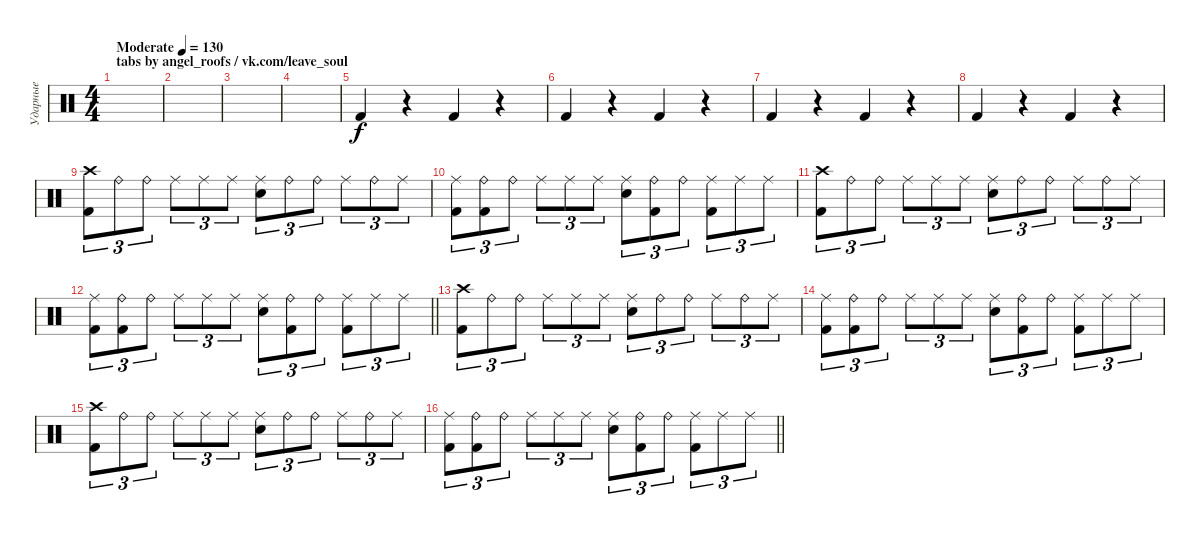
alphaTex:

\track ("Ударные" "Ударные") {instrument percussion}
\staff {score}
\articulation defaults
\ts (4 4)
\section ("" "tabs by angel_roofs / vk.com/leave_soul")
\tempo (130 "Moderate")
\clef neutral
\ks c
|
|
|
|
"Kick (hit) 2".4 r.4 "Kick (hit) 2".4 r.4 |
"Kick (hit) 2".4 r.4 "Kick (hit) 2".4 r.4 |
"Kick (hit) 2".4 r.4 "Kick (hit) 2".4 r.4 |
"Kick (hit) 2".4 r.4 "Kick (hit) 2".4 r.4 |
("Crash high (hit)" "Kick (hit) 2").8{tu (3 2)} "Ride (bell)".8{tu (3 2)} "Ride (bell)".8{tu (3 2)} "Ride (middle)".8{tu (3 2)} "Ride (middle)".8{tu (3 2)} "Ride (middle)".8{tu (3 2)} ("Ride (middle)" "Electric Snare (hit)").8{tu (3 2)} "Ride (bell)".8{tu (3 2)} "Ride (bell)".8{tu (3 2)} "Ride (middle)".8{tu (3 2)} "Ride (bell)".8{tu (3 2)} "Ride (middle)".8{tu (3 2)} |
("Ride (middle)" "Kick (hit) 2").8{tu (3 2)} ("Ride (bell)" "Kick (hit) 2").8{tu (3 2)} "Ride (bell)".8{tu (3 2)} "Ride (middle)".8{tu (3 2)} "Ride (middle)".8{tu (3 2)} "Ride (middle)".8{tu (3 2)} ("Ride (middle)" "Electric Snare (hit)").8{tu (3 2)} ("Ride (bell)" "Kick (hit) 2").8{tu (3 2)} "Ride (bell)".8{tu (3 2)} ("Ride (middle)" "Kick (hit) 2").8{tu (3 2)} "Ride (middle)".8{tu (3 2)} "Ride (middle)".8{tu (3 2)} |
("Crash high (hit)" "Kick (hit) 2").8{tu (3 2)} "Ride (bell)".8{tu (3 2)} "Ride (bell)".8{tu (3 2)} "Ride (middle)".8{tu (3 2)} "Ride (middle)".8{tu (3 2)} "Ride (middle)".8{tu (3 2)} ("Ride (middle)" "Electric Snare (hit)").8{tu (3 2)} "Ride (bell)".8{tu (3 2)} "Ride (bell)".8{tu (3 2)} "Ride (middle)".8{tu (3 2)} "Ride (bell)".8{tu (3 2)} "Ride (middle)".8{tu (3 2)} |
\barLineRight lightlight
("Ride (middle)" "Kick (hit) 2").8{tu (3 2)} ("Ride (bell)" "Kick (hit) 2").8{tu (3 2)} "Ride (bell)".8{tu (3 2)} "Ride (middle)".8{tu (3 2)} "Ride (middle)".8{tu (3 2)} "Ride (middle)".8{tu (3 2)} ("Ride (middle)" "Electric Snare (hit)").8{tu (3 2)} ("Ride (bell)" "Kick (hit) 2").8{tu (3 2)} "Ride (bell)".8{tu (3 2)} ("Ride (middle)" "Kick (hit) 2").8{tu (3 2)} "Ride (middle)".8{tu (3 2)} "Ride (middle)".8{tu (3 2)} |
("Crash high (hit)" "Kick (hit) 2").8{tu (3 2)} "Ride (bell)".8{tu (3 2)} "Ride (bell)".8{tu (3 2)} "Ride (middle)".8{tu (3 2)} "Ride (middle)".8{tu (3 2)} "Ride (middle)".8{tu (3 2)} ("Ride (middle)" "Electric Snare (hit)").8{tu (3 2)} "Ride (bell)".8{tu (3 2)} "Ride (bell)".8{tu (3 2)} "Ride (middle)".8{tu (3 2)} "Ride (bell)".8{tu (3 2)} "Ride (middle)".8{tu (3 2)} |
("Ride (middle)" "Kick (hit) 2").8{tu (3 2)} ("Ride (bell)" "Kick (hit) 2").8{tu (3 2)} "Ride (bell)".8{tu (3 2)} "Ride (middle)".8{tu (3 2)} "Ride (middle)".8{tu (3 2)} "Ride (middle)".8{tu (3 2)} ("Ride (middle)" "Electric Snare (hit)").8{tu (3 2)} ("Ride (bell)" "Kick (hit) 2").8{tu (3 2)} "Ride (bell)".8{tu (3 2)} ("Ride (middle)" "Kick (hit) 2").8{tu (3 2)} "Ride (middle)".8{tu (3 2)} "Ride (middle)".8{tu (3 2)} |
("Crash high (hit)" "Kick (hit) 2").8{tu (3 2)} "Ride (bell)".8{tu (3 2)} "Ride (bell)".8{tu (3 2)} "Ride (middle)".8{tu (3 2)} "Ride (middle)".8{tu (3 2)} "Ride (middle)".8{tu (3 2)} ("Ride (middle)" "Electric Snare (hit)").8{tu (3 2)} "Ride (bell)".8{tu (3 2)} "Ride (bell)".8{tu (3 2)} "Ride (middle)".8{tu (3 2)} "Ride (bell)".8{tu (3 2)} "Ride (middle)".8{tu (3 2)} |
\barLineRight lightlight
("Ride (middle)" "Kick (hit) 2").8{tu (3 2)} ("Ride (bell)" "Kick (hit) 2").8{tu (3 2)} "Ride (bell)".8{tu (3 2)} "Ride (middle)".8{tu (3 2)} "Ride (middle)".8{tu (3 2)} "Ride (middle)".8{tu (3 2)} ("Ride (middle)" "Electric Snare (hit)").8{tu (3 2)} ("Ride (bell)" "Kick (hit) 2").8{tu (3 2)} "Ride (bell)".8{tu (3 2)} ("Ride (middle)" "Kick (hit) 2").8{tu (3 2)} "Ride (middle)".8{tu (3 2)} "Ride (middle)".8{tu (3 2)}
